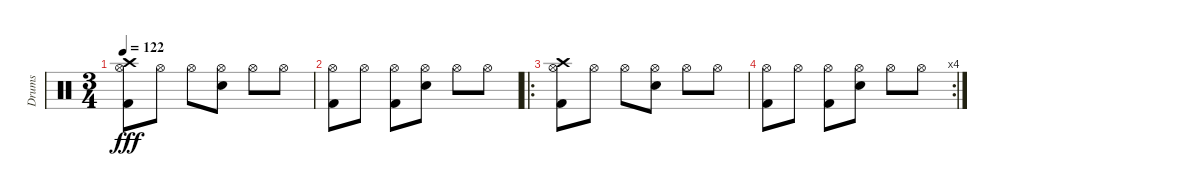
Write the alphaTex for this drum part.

\track ("Drums" "Drums") {instrument percussion}
\staff {score}
\articulation defaults
\ts (3 4)
\tempo 122
\clef neutral
\ks c
("Hi-Hat (open)" "Kick (hit) 2" "Crash high (hit)").8{dy fff} "Hi-Hat (open)".8 "Hi-Hat (open)".8 ("Hi-Hat (open)" "Snare (hit) 2").8 "Hi-Hat (open)".8 "Hi-Hat (open)".8 |
("Hi-Hat (open)" "Kick (hit) 2").8 "Hi-Hat (open)".8 ("Hi-Hat (open)" "Kick (hit) 2").8 ("Hi-Hat (open)" "Snare (hit) 2").8 "Hi-Hat (open)".8 "Hi-Hat (open)".8 |
\ro
("Hi-Hat (open)" "Kick (hit) 2" "Crash high (hit)").8 "Hi-Hat (open)".8 "Hi-Hat (open)".8 ("Hi-Hat (open)" "Snare (hit) 2").8 "Hi-Hat (open)".8 "Hi-Hat (open)".8 |
\rc 4
("Hi-Hat (open)" "Kick (hit) 2").8 "Hi-Hat (open)".8 ("Hi-Hat (open)" "Kick (hit) 2").8 ("Hi-Hat (open)" "Snare (hit) 2").8 "Hi-Hat (open)".8 "Hi-Hat (open)".8
